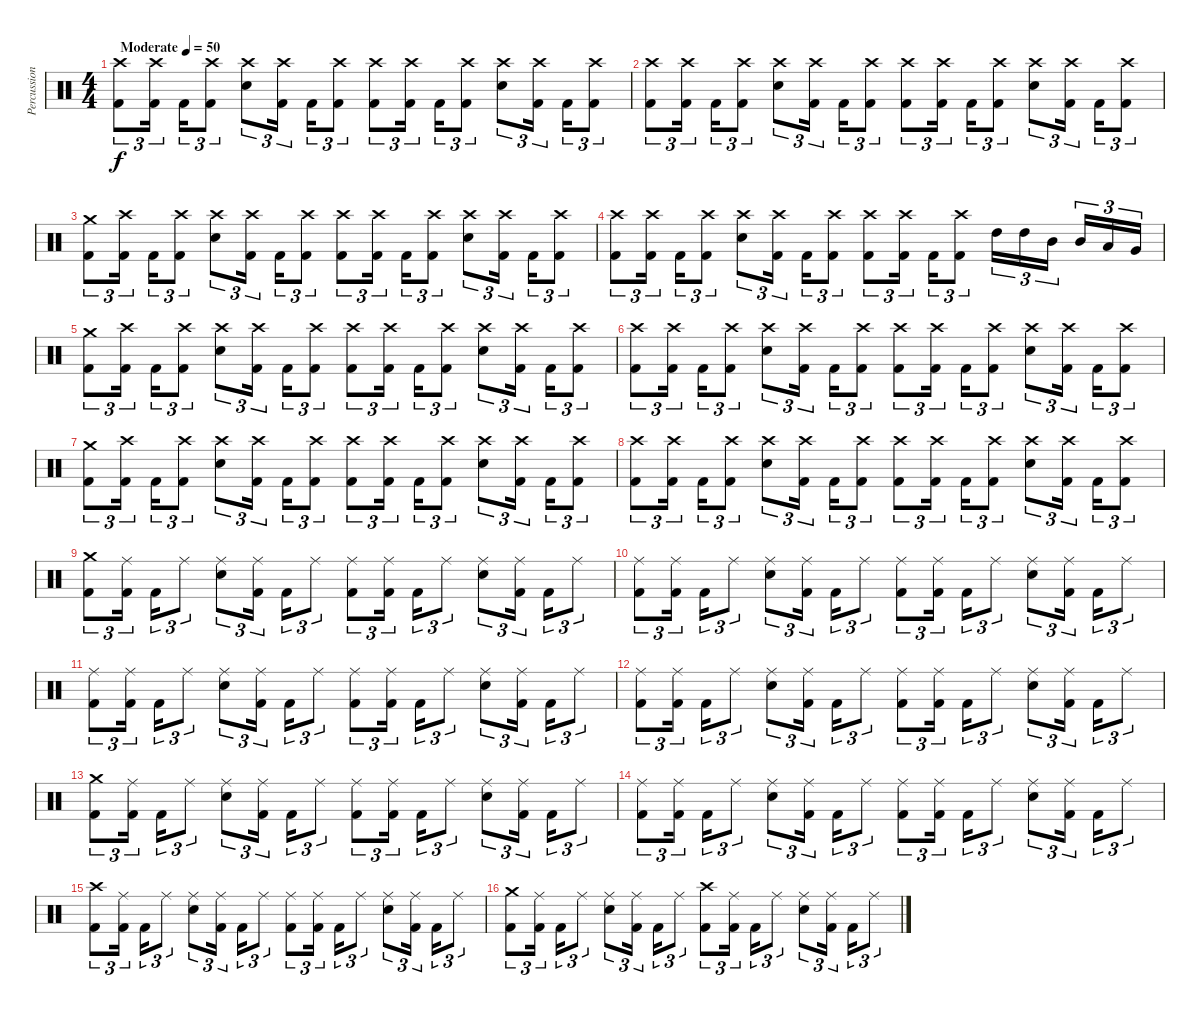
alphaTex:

\track ("Percussion" "Percussion") {instrument percussion}
\staff {score}
\articulation defaults
\ts (4 4)
\tempo (50 "Moderate")
\clef neutral
\ks c
("Kick (hit) 2" "Crash high (hit)").8{tu (3 2) dy f} ("Kick (hit) 2" "Crash high (hit)").16{tu (3 2) beam splitsecondary} "Kick (hit) 2".16{tu (3 2)} ("Kick (hit) 2" "Crash high (hit)").8{tu (3 2)} ("Electric Snare (hit)" "Crash high (hit)").8{tu (3 2)} ("Kick (hit) 2" "Crash high (hit)").16{tu (3 2) beam splitsecondary} "Kick (hit) 2".16{tu (3 2)} ("Kick (hit) 2" "Crash high (hit)").8{tu (3 2)} ("Kick (hit) 2" "Crash high (hit)").8{tu (3 2)} ("Kick (hit) 2" "Crash high (hit)").16{tu (3 2) beam splitsecondary} "Kick (hit) 2".16{tu (3 2)} ("Kick (hit) 2" "Crash high (hit)").8{tu (3 2)} ("Electric Snare (hit)" "Crash high (hit)").8{tu (3 2)} ("Kick (hit) 2" "Crash high (hit)").16{tu (3 2) beam splitsecondary} "Kick (hit) 2".16{tu (3 2)} ("Kick (hit) 2" "Crash high (hit)").8{tu (3 2)} |
("Kick (hit) 2" "Crash high (hit)").8{tu (3 2)} ("Kick (hit) 2" "Crash high (hit)").16{tu (3 2) beam splitsecondary} "Kick (hit) 2".16{tu (3 2)} ("Kick (hit) 2" "Crash high (hit)").8{tu (3 2)} ("Electric Snare (hit)" "Crash high (hit)").8{tu (3 2)} ("Kick (hit) 2" "Crash high (hit)").16{tu (3 2) beam splitsecondary} "Kick (hit) 2".16{tu (3 2)} ("Kick (hit) 2" "Crash high (hit)").8{tu (3 2)} ("Kick (hit) 2" "Crash high (hit)").8{tu (3 2)} ("Kick (hit) 2" "Crash high (hit)").16{tu (3 2) beam splitsecondary} "Kick (hit) 2".16{tu (3 2)} ("Kick (hit) 2" "Crash high (hit)").8{tu (3 2)} ("Electric Snare (hit)" "Crash high (hit)").8{tu (3 2)} ("Kick (hit) 2" "Crash high (hit)").16{tu (3 2) beam splitsecondary} "Kick (hit) 2".16{tu (3 2)} ("Kick (hit) 2" "Crash high (hit)").8{tu (3 2)} |
("Kick (hit) 2" "Crash medium (hit)").8{tu (3 2)} ("Kick (hit) 2" "Crash high (hit)").16{tu (3 2) beam splitsecondary} "Kick (hit) 2".16{tu (3 2)} ("Kick (hit) 2" "Crash high (hit)").8{tu (3 2)} ("Electric Snare (hit)" "Crash high (hit)").8{tu (3 2)} ("Kick (hit) 2" "Crash high (hit)").16{tu (3 2) beam splitsecondary} "Kick (hit) 2".16{tu (3 2)} ("Kick (hit) 2" "Crash high (hit)").8{tu (3 2)} ("Kick (hit) 2" "Crash high (hit)").8{tu (3 2)} ("Kick (hit) 2" "Crash high (hit)").16{tu (3 2) beam splitsecondary} "Kick (hit) 2".16{tu (3 2)} ("Kick (hit) 2" "Crash high (hit)").8{tu (3 2)} ("Electric Snare (hit)" "Crash high (hit)").8{tu (3 2)} ("Kick (hit) 2" "Crash high (hit)").16{tu (3 2) beam splitsecondary} "Kick (hit) 2".16{tu (3 2)} ("Kick (hit) 2" "Crash high (hit)").8{tu (3 2)} |
("Kick (hit) 2" "Crash high (hit)").8{tu (3 2)} ("Kick (hit) 2" "Crash high (hit)").16{tu (3 2) beam splitsecondary} "Kick (hit) 2".16{tu (3 2)} ("Kick (hit) 2" "Crash high (hit)").8{tu (3 2)} ("Electric Snare (hit)" "Crash high (hit)").8{tu (3 2)} ("Kick (hit) 2" "Crash high (hit)").16{tu (3 2) beam splitsecondary} "Kick (hit) 2".16{tu (3 2)} ("Kick (hit) 2" "Crash high (hit)").8{tu (3 2)} ("Kick (hit) 2" "Crash high (hit)").8{tu (3 2)} ("Kick (hit) 2" "Crash high (hit)").16{tu (3 2) beam splitsecondary} "Kick (hit) 2".16{tu (3 2)} ("Kick (hit) 2" "Crash high (hit)").8{tu (3 2)} "High Tom (hit)".16{tu (3 2)} "High Tom (hit)".16{tu (3 2)} "Mid Tom (hit)".16{tu (3 2) beam splitsecondary} "Mid Tom (hit)".16{tu (3 2)} "Low Tom (hit)".16{tu (3 2)} "Very Low Tom (hit)".16{tu (3 2)} |
("Kick (hit) 2" "Crash medium (hit)").8{tu (3 2)} ("Kick (hit) 2" "Crash high (hit)").16{tu (3 2) beam splitsecondary} "Kick (hit) 2".16{tu (3 2)} ("Kick (hit) 2" "Crash high (hit)").8{tu (3 2)} ("Electric Snare (hit)" "Crash high (hit)").8{tu (3 2)} ("Kick (hit) 2" "Crash high (hit)").16{tu (3 2) beam splitsecondary} "Kick (hit) 2".16{tu (3 2)} ("Kick (hit) 2" "Crash high (hit)").8{tu (3 2)} ("Kick (hit) 2" "Crash high (hit)").8{tu (3 2)} ("Kick (hit) 2" "Crash high (hit)").16{tu (3 2) beam splitsecondary} "Kick (hit) 2".16{tu (3 2)} ("Kick (hit) 2" "Crash high (hit)").8{tu (3 2)} ("Electric Snare (hit)" "Crash high (hit)").8{tu (3 2)} ("Kick (hit) 2" "Crash high (hit)").16{tu (3 2) beam splitsecondary} "Kick (hit) 2".16{tu (3 2)} ("Kick (hit) 2" "Crash high (hit)").8{tu (3 2)} |
("Kick (hit) 2" "Crash high (hit)").8{tu (3 2)} ("Kick (hit) 2" "Crash high (hit)").16{tu (3 2) beam splitsecondary} "Kick (hit) 2".16{tu (3 2)} ("Kick (hit) 2" "Crash high (hit)").8{tu (3 2)} ("Electric Snare (hit)" "Crash high (hit)").8{tu (3 2)} ("Kick (hit) 2" "Crash high (hit)").16{tu (3 2) beam splitsecondary} "Kick (hit) 2".16{tu (3 2)} ("Kick (hit) 2" "Crash high (hit)").8{tu (3 2)} ("Kick (hit) 2" "Crash high (hit)").8{tu (3 2)} ("Kick (hit) 2" "Crash high (hit)").16{tu (3 2) beam splitsecondary} "Kick (hit) 2".16{tu (3 2)} ("Kick (hit) 2" "Crash high (hit)").8{tu (3 2)} ("Electric Snare (hit)" "Crash high (hit)").8{tu (3 2)} ("Kick (hit) 2" "Crash high (hit)").16{tu (3 2) beam splitsecondary} "Kick (hit) 2".16{tu (3 2)} ("Kick (hit) 2" "Crash high (hit)").8{tu (3 2)} |
("Kick (hit) 2" "Crash medium (hit)").8{tu (3 2)} ("Kick (hit) 2" "Crash high (hit)").16{tu (3 2) beam splitsecondary} "Kick (hit) 2".16{tu (3 2)} ("Kick (hit) 2" "Crash high (hit)").8{tu (3 2)} ("Electric Snare (hit)" "Crash high (hit)").8{tu (3 2)} ("Kick (hit) 2" "Crash high (hit)").16{tu (3 2) beam splitsecondary} "Kick (hit) 2".16{tu (3 2)} ("Kick (hit) 2" "Crash high (hit)").8{tu (3 2)} ("Kick (hit) 2" "Crash high (hit)").8{tu (3 2)} ("Kick (hit) 2" "Crash high (hit)").16{tu (3 2) beam splitsecondary} "Kick (hit) 2".16{tu (3 2)} ("Kick (hit) 2" "Crash high (hit)").8{tu (3 2)} ("Electric Snare (hit)" "Crash high (hit)").8{tu (3 2)} ("Kick (hit) 2" "Crash high (hit)").16{tu (3 2) beam splitsecondary} "Kick (hit) 2".16{tu (3 2)} ("Kick (hit) 2" "Crash high (hit)").8{tu (3 2)} |
("Kick (hit) 2" "Crash high (hit)").8{tu (3 2)} ("Kick (hit) 2" "Crash high (hit)").16{tu (3 2) beam splitsecondary} "Kick (hit) 2".16{tu (3 2)} ("Kick (hit) 2" "Crash high (hit)").8{tu (3 2)} ("Electric Snare (hit)" "Crash high (hit)").8{tu (3 2)} ("Kick (hit) 2" "Crash high (hit)").16{tu (3 2) beam splitsecondary} "Kick (hit) 2".16{tu (3 2)} ("Kick (hit) 2" "Crash high (hit)").8{tu (3 2)} ("Kick (hit) 2" "Crash high (hit)").8{tu (3 2)} ("Kick (hit) 2" "Crash high (hit)").16{tu (3 2) beam splitsecondary} "Kick (hit) 2".16{tu (3 2)} ("Kick (hit) 2" "Crash high (hit)").8{tu (3 2)} ("Electric Snare (hit)" "Crash high (hit)").8{tu (3 2)} ("Kick (hit) 2" "Crash high (hit)").16{tu (3 2) beam splitsecondary} "Kick (hit) 2".16{tu (3 2)} ("Kick (hit) 2" "Crash high (hit)").8{tu (3 2)} |
("Kick (hit) 2" "Crash medium (hit)").8{tu (3 2)} ("Kick (hit) 2" "Ride (middle)").16{tu (3 2) beam splitsecondary} "Kick (hit) 2".16{tu (3 2)} "Ride (middle)".8{tu (3 2)} ("Electric Snare (hit)" "Ride (middle)").8{tu (3 2)} ("Kick (hit) 2" "Ride (middle)").16{tu (3 2) beam splitsecondary} "Kick (hit) 2".16{tu (3 2)} "Ride (middle)".8{tu (3 2)} ("Kick (hit) 2" "Ride (middle)").8{tu (3 2)} ("Kick (hit) 2" "Ride (middle)").16{tu (3 2) beam splitsecondary} "Kick (hit) 2".16{tu (3 2)} "Ride (middle)".8{tu (3 2)} ("Electric Snare (hit)" "Ride (middle)").8{tu (3 2)} ("Kick (hit) 2" "Ride (middle)").16{tu (3 2) beam splitsecondary} "Kick (hit) 2".16{tu (3 2)} "Ride (middle)".8{tu (3 2)} |
("Kick (hit) 2" "Ride (middle)").8{tu (3 2)} ("Kick (hit) 2" "Ride (middle)").16{tu (3 2) beam splitsecondary} "Kick (hit) 2".16{tu (3 2)} "Ride (middle)".8{tu (3 2)} ("Electric Snare (hit)" "Ride (middle)").8{tu (3 2)} ("Kick (hit) 2" "Ride (middle)").16{tu (3 2) beam splitsecondary} "Kick (hit) 2".16{tu (3 2)} "Ride (middle)".8{tu (3 2)} ("Kick (hit) 2" "Ride (middle)").8{tu (3 2)} ("Kick (hit) 2" "Ride (middle)").16{tu (3 2) beam splitsecondary} "Kick (hit) 2".16{tu (3 2)} "Ride (middle)".8{tu (3 2)} ("Electric Snare (hit)" "Ride (middle)").8{tu (3 2)} ("Kick (hit) 2" "Ride (middle)").16{tu (3 2) beam splitsecondary} "Kick (hit) 2".16{tu (3 2)} "Ride (middle)".8{tu (3 2)} |
("Kick (hit) 2" "Ride (middle)").8{tu (3 2)} ("Kick (hit) 2" "Ride (middle)").16{tu (3 2) beam splitsecondary} "Kick (hit) 2".16{tu (3 2)} "Ride (middle)".8{tu (3 2)} ("Electric Snare (hit)" "Ride (middle)").8{tu (3 2)} ("Kick (hit) 2" "Ride (middle)").16{tu (3 2) beam splitsecondary} "Kick (hit) 2".16{tu (3 2)} "Ride (middle)".8{tu (3 2)} ("Kick (hit) 2" "Ride (middle)").8{tu (3 2)} ("Kick (hit) 2" "Ride (middle)").16{tu (3 2) beam splitsecondary} "Kick (hit) 2".16{tu (3 2)} "Ride (middle)".8{tu (3 2)} ("Electric Snare (hit)" "Ride (middle)").8{tu (3 2)} ("Kick (hit) 2" "Ride (middle)").16{tu (3 2) beam splitsecondary} "Kick (hit) 2".16{tu (3 2)} "Ride (middle)".8{tu (3 2)} |
("Kick (hit) 2" "Ride (middle)").8{tu (3 2)} ("Kick (hit) 2" "Ride (middle)").16{tu (3 2) beam splitsecondary} "Kick (hit) 2".16{tu (3 2)} "Ride (middle)".8{tu (3 2)} ("Electric Snare (hit)" "Ride (middle)").8{tu (3 2)} ("Kick (hit) 2" "Ride (middle)").16{tu (3 2) beam splitsecondary} "Kick (hit) 2".16{tu (3 2)} "Ride (middle)".8{tu (3 2)} ("Kick (hit) 2" "Ride (middle)").8{tu (3 2)} ("Kick (hit) 2" "Ride (middle)").16{tu (3 2) beam splitsecondary} "Kick (hit) 2".16{tu (3 2)} "Ride (middle)".8{tu (3 2)} ("Electric Snare (hit)" "Ride (middle)").8{tu (3 2)} ("Kick (hit) 2" "Ride (middle)").16{tu (3 2) beam splitsecondary} "Kick (hit) 2".16{tu (3 2)} "Ride (middle)".8{tu (3 2)} |
("Kick (hit) 2" "Crash medium (hit)").8{tu (3 2)} ("Kick (hit) 2" "Ride (middle)").16{tu (3 2) beam splitsecondary} "Kick (hit) 2".16{tu (3 2)} "Ride (middle)".8{tu (3 2)} ("Electric Snare (hit)" "Ride (middle)").8{tu (3 2)} ("Kick (hit) 2" "Ride (middle)").16{tu (3 2) beam splitsecondary} "Kick (hit) 2".16{tu (3 2)} "Ride (middle)".8{tu (3 2)} ("Kick (hit) 2" "Ride (middle)").8{tu (3 2)} ("Kick (hit) 2" "Ride (middle)").16{tu (3 2) beam splitsecondary} "Kick (hit) 2".16{tu (3 2)} "Ride (middle)".8{tu (3 2)} ("Electric Snare (hit)" "Ride (middle)").8{tu (3 2)} ("Kick (hit) 2" "Ride (middle)").16{tu (3 2) beam splitsecondary} "Kick (hit) 2".16{tu (3 2)} "Ride (middle)".8{tu (3 2)} |
("Kick (hit) 2" "Ride (middle)").8{tu (3 2)} ("Kick (hit) 2" "Ride (middle)").16{tu (3 2) beam splitsecondary} "Kick (hit) 2".16{tu (3 2)} "Ride (middle)".8{tu (3 2)} ("Electric Snare (hit)" "Ride (middle)").8{tu (3 2)} ("Kick (hit) 2" "Ride (middle)").16{tu (3 2) beam splitsecondary} "Kick (hit) 2".16{tu (3 2)} "Ride (middle)".8{tu (3 2)} ("Kick (hit) 2" "Ride (middle)").8{tu (3 2)} ("Kick (hit) 2" "Ride (middle)").16{tu (3 2) beam splitsecondary} "Kick (hit) 2".16{tu (3 2)} "Ride (middle)".8{tu (3 2)} ("Electric Snare (hit)" "Ride (middle)").8{tu (3 2)} ("Kick (hit) 2" "Ride (middle)").16{tu (3 2) beam splitsecondary} "Kick (hit) 2".16{tu (3 2)} "Ride (middle)".8{tu (3 2)} |
("Kick (hit) 2" "Crash high (hit)").8{tu (3 2)} ("Kick (hit) 2" "Ride (middle)").16{tu (3 2) beam splitsecondary} "Kick (hit) 2".16{tu (3 2)} "Ride (middle)".8{tu (3 2)} ("Electric Snare (hit)" "Ride (middle)").8{tu (3 2)} ("Kick (hit) 2" "Ride (middle)").16{tu (3 2) beam splitsecondary} "Kick (hit) 2".16{tu (3 2)} "Ride (middle)".8{tu (3 2)} ("Kick (hit) 2" "Ride (middle)").8{tu (3 2)} ("Kick (hit) 2" "Ride (middle)").16{tu (3 2) beam splitsecondary} "Kick (hit) 2".16{tu (3 2)} "Ride (middle)".8{tu (3 2)} ("Electric Snare (hit)" "Ride (middle)").8{tu (3 2)} ("Kick (hit) 2" "Ride (middle)").16{tu (3 2) beam splitsecondary} "Kick (hit) 2".16{tu (3 2)} "Ride (middle)".8{tu (3 2)} |
("Kick (hit) 2" "Crash medium (hit)").8{tu (3 2)} ("Kick (hit) 2" "Ride (middle)").16{tu (3 2) beam splitsecondary} "Kick (hit) 2".16{tu (3 2)} "Ride (middle)".8{tu (3 2)} ("Electric Snare (hit)" "Ride (middle)").8{tu (3 2)} ("Kick (hit) 2" "Ride (middle)").16{tu (3 2) beam splitsecondary} "Kick (hit) 2".16{tu (3 2)} "Ride (middle)".8{tu (3 2)} ("Kick (hit) 2" "Crash high (hit)").8{tu (3 2)} ("Kick (hit) 2" "Ride (middle)").16{tu (3 2) beam splitsecondary} "Kick (hit) 2".16{tu (3 2)} "Ride (middle)".8{tu (3 2)} ("Electric Snare (hit)" "Ride (middle)").8{tu (3 2)} ("Kick (hit) 2" "Ride (middle)").16{tu (3 2) beam splitsecondary} "Kick (hit) 2".16{tu (3 2)} "Ride (middle)".8{tu (3 2)}
